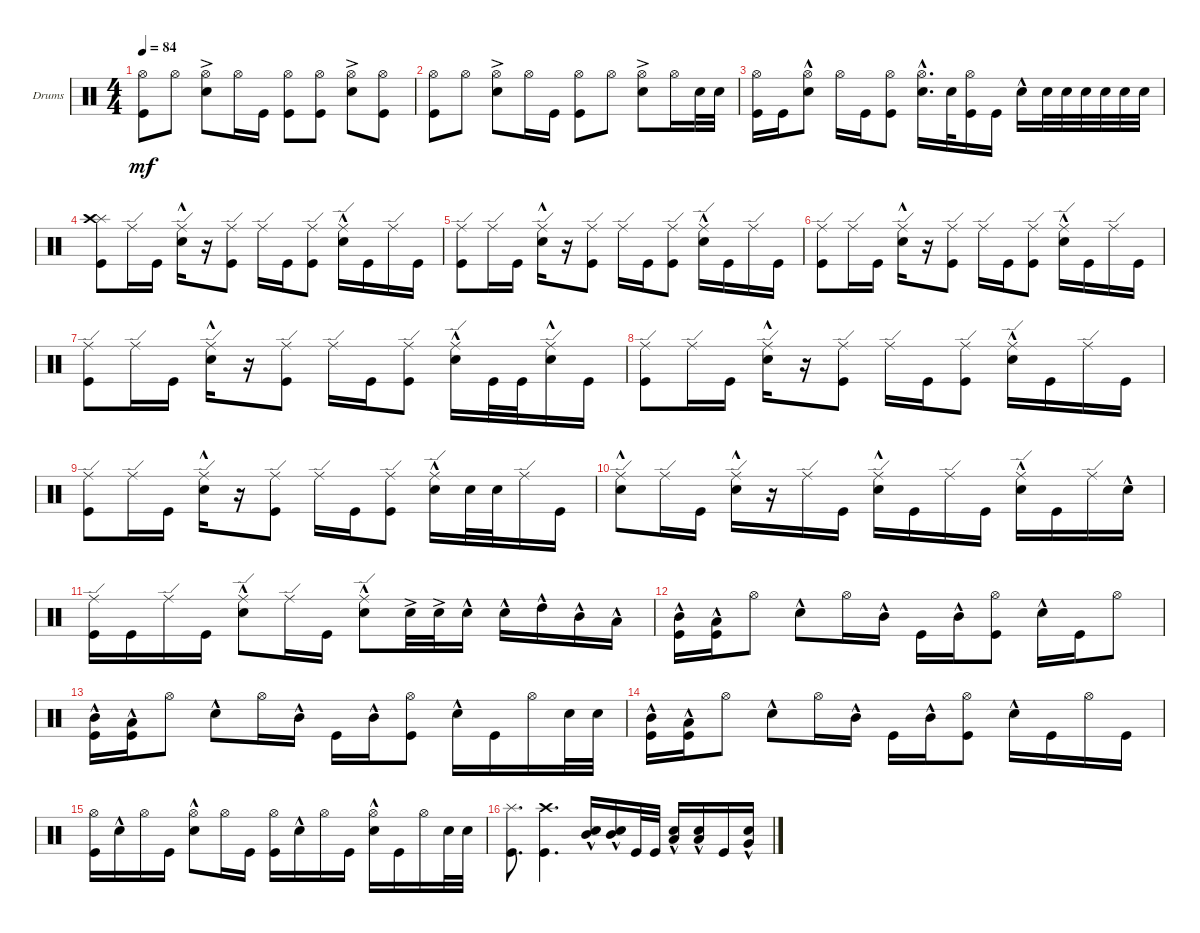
\defaultSystemsLayout 4
\bracketExtendMode groupsimilarinstruments
\firstSystemTrackNameOrientation horizontal
\otherSystemsTrackNameOrientation horizontal
\track ("Drumkit" "Drums") {instrument percussion}
\staff {score}
\articulation defaults
\ts (4 4)
\tempo 84
\clef neutral
\ks c
("Kick (hit)" "Hi-Hat (open)").8{dy mf} "Hi-Hat (open)".8 ("Snare (hit) 2"{ac} "Hi-Hat (open)").8 "Hi-Hat (open)".16 "Kick (hit)".16 ("Hi-Hat (open)" "Kick (hit)").8 ("Hi-Hat (open)" "Kick (hit)").8 ("Snare (hit) 2"{ac} "Hi-Hat (open)").8 ("Hi-Hat (open)" "Kick (hit)").8 |
("Kick (hit)" "Hi-Hat (open)").8 "Hi-Hat (open)".8 ("Snare (hit) 2"{ac} "Hi-Hat (open)").8 "Hi-Hat (open)".16 "Kick (hit)".16 ("Hi-Hat (open)" "Kick (hit)").8 "Hi-Hat (open)".8 ("Snare (hit) 2"{ac} "Hi-Hat (open)").8 "Hi-Hat (open)".16 "Snare (hit) 2".32 "Snare (hit) 2".32 |
("Kick (hit)" "Hi-Hat (open)").16 "Kick (hit)".16 ("Hi-Hat (open)" "Snare (hit) 2"{hac}).8 "Hi-Hat (open)".16 "Kick (hit)".16 ("Hi-Hat (open)" "Kick (hit)").8 ("Hi-Hat (open)" "Snare (hit) 2"{hac}).16{d} "Snare (hit) 2".32 ("Hi-Hat (open)" "Kick (hit)").16 "Kick (hit)".16 "Snare (hit) 2"{hac}.16 "Snare (hit) 2".32 "Snare (hit) 2".32 "Snare (hit) 2".32 "Snare (hit) 2".32 "Snare (hit) 2".32 "Snare (hit) 2".32 |
("Kick (hit)" "Splash (hit)" "Crash high (hit)").8 "Ride (edge)".16 "Kick (hit)".16 ("Ride (edge)" "Snare (hit) 2"{hac}).16 r.16 ("Ride (edge)" "Kick (hit)").8 "Ride (edge)".16 "Kick (hit)".16 ("Ride (edge)" "Kick (hit)").8 ("Snare (hit) 2"{hac} "Ride (edge)").16 "Kick (hit)".16 "Ride (edge)".16 "Kick (hit)".16 |
("Kick (hit)" "Ride (edge)").8 "Ride (edge)".16 "Kick (hit)".16 ("Ride (edge)" "Snare (hit) 2"{hac}).16 r.16 ("Kick (hit)" "Ride (edge)").8 "Ride (edge)".16 "Kick (hit)".16 ("Ride (edge)" "Kick (hit)").8 ("Snare (hit) 2"{hac} "Ride (edge)").16 "Kick (hit)".16 "Ride (edge)".16 "Kick (hit)".16 |
("Kick (hit)" "Ride (edge)").8 "Ride (edge)".16 "Kick (hit)".16 ("Ride (edge)" "Snare (hit) 2"{hac}).16 r.16 ("Kick (hit)" "Ride (edge)").8 "Ride (edge)".16 "Kick (hit)".16 ("Ride (edge)" "Kick (hit)").8 ("Snare (hit) 2"{hac} "Ride (edge)").16 "Kick (hit)".16 "Ride (edge)".16 "Kick (hit)".16 |
("Kick (hit)" "Ride (edge)").8 "Ride (edge)".16 "Kick (hit)".16 ("Ride (edge)" "Snare (hit) 2"{hac}).16 r.16 ("Kick (hit)" "Ride (edge)").8 "Ride (edge)".16 "Kick (hit)".16 ("Ride (edge)" "Kick (hit)").8 ("Snare (hit) 2"{hac} "Ride (edge)").16 "Kick (hit)".32 "Kick (hit)".32 ("Ride (edge)" "Snare (hit) 2"{hac}).16 "Kick (hit)".16 |
("Kick (hit)" "Ride (edge)").8 "Ride (edge)".16 "Kick (hit)".16 ("Ride (edge)" "Snare (hit) 2"{hac}).16 r.16 ("Kick (hit)" "Ride (edge)").8 "Ride (edge)".16 "Kick (hit)".16 ("Ride (edge)" "Kick (hit)").8 ("Snare (hit) 2"{hac} "Ride (edge)").16 "Kick (hit)".16 "Ride (edge)".16 "Kick (hit)".16 |
("Kick (hit)" "Ride (edge)").8 "Ride (edge)".16 "Kick (hit)".16 ("Ride (edge)" "Snare (hit) 2"{hac}).16 r.16 ("Kick (hit)" "Ride (edge)").8 "Ride (edge)".16 "Kick (hit)".16 ("Ride (edge)" "Kick (hit)").8 ("Snare (hit) 2"{hac} "Ride (edge)").16 "Snare (hit) 2".32 "Snare (hit) 2".32 "Ride (edge)".16 "Kick (hit)".16 |
("Ride (edge)" "Snare (hit) 2"{hac}).8 "Ride (edge)".16 "Kick (hit)".16 ("Ride (edge)" "Snare (hit) 2"{hac}).16 r.16 "Ride (edge)".16 "Kick (hit)".16 ("Ride (edge)" "Snare (hit) 2"{hac}).16 "Kick (hit)".16 "Ride (edge)".16 "Kick (hit)".16 ("Snare (hit) 2"{hac} "Ride (edge)").16 "Kick (hit)".16 "Ride (edge)".16 "Snare (hit) 2"{hac}.16 |
("Ride (edge)" "Kick (hit)").16 "Kick (hit)".16 "Ride (edge)".16 "Kick (hit)".16 ("Snare (hit) 2"{hac} "Ride (edge)").8 "Ride (edge)".16 "Kick (hit)".16 ("Snare (hit) 2"{hac} "Ride (edge)").8 "Snare (hit) 2"{ac}.32 "Snare (hit) 2"{ac}.32 "Snare (hit) 2"{hac}.16 "Snare (hit) 2"{hac}.16 "High Tom (hit)"{hac}.16 "Mid Tom (hit)"{hac}.16 "Low Tom (hit)"{hac}.16 |
("Mid Tom (hit)"{hac} "Kick (hit)").16 ("Low Tom (hit)"{hac} "Kick (hit)").16 "Hi-Hat (open)".8 "Snare (hit) 2"{hac}.8 "Hi-Hat (open)".16 "Mid Tom (hit)"{hac}.16 "Kick (hit)".16 "Mid Tom (hit)"{hac}.16 ("Hi-Hat (open)" "Kick (hit)").8 "Snare (hit) 2"{hac}.16 "Kick (hit)".16 "Hi-Hat (open)".8 |
("Mid Tom (hit)"{hac} "Kick (hit)").16 ("Low Tom (hit)"{hac} "Kick (hit)").16 "Hi-Hat (open)".8 "Snare (hit) 2"{hac}.8 "Hi-Hat (open)".16 "Mid Tom (hit)"{hac}.16 "Kick (hit)".16 "Mid Tom (hit)"{hac}.16 ("Hi-Hat (open)" "Kick (hit)").8 "Snare (hit) 2"{hac}.16 "Kick (hit)".16 "Hi-Hat (open)".16 "Snare (hit) 2".32 "Snare (hit) 2".32 |
("Mid Tom (hit)"{hac} "Kick (hit)").16 ("Low Tom (hit)"{hac} "Kick (hit)").16 "Hi-Hat (open)".8 "Snare (hit) 2"{hac}.8 "Hi-Hat (open)".16 "Mid Tom (hit)"{hac}.16 "Kick (hit)".16 "Mid Tom (hit)"{hac}.16 ("Hi-Hat (open)" "Kick (hit)").8 "Snare (hit) 2"{hac}.16 "Kick (hit)".16 "Hi-Hat (open)".16 "Kick (hit)".16 |
("Hi-Hat (open)" "Kick (hit)").16 "Snare (hit) 2"{hac}.16 "Hi-Hat (open)".16 "Kick (hit)".16 ("Snare (hit) 2"{hac} "Hi-Hat (open)").8 "Hi-Hat (open)".16 "Kick (hit)".16 ("Hi-Hat (open)" "Kick (hit)").16 "Snare (hit) 2"{hac}.16 "Hi-Hat (open)".16 "Kick (hit)".16 ("Hi-Hat (open)" "Snare (hit) 2"{hac}).16 "Kick (hit)".16 "Hi-Hat (open)".16 "Snare (hit) 2".32 "Snare (hit) 2".32 |
("Kick (hit)" "Splash (hit)").8{d} ("Kick (hit)" "Crash high (hit)").4{d} ("Mid Tom (hit)"{hac} "Snare (hit) 2"{hac}).16 ("Mid Tom (hit)"{hac} "Snare (hit) 2"{hac}).16 "Kick (hit)".32 "Kick (hit)".32 ("Low Tom (hit)"{hac} "Snare (hit) 2"{hac}).16 ("Low Tom (hit)"{hac} "Snare (hit) 2"{hac}).16 "Kick (hit)".16 ("Snare (hit) 2"{hac} "Very Low Tom (hit)"{hac}).16
